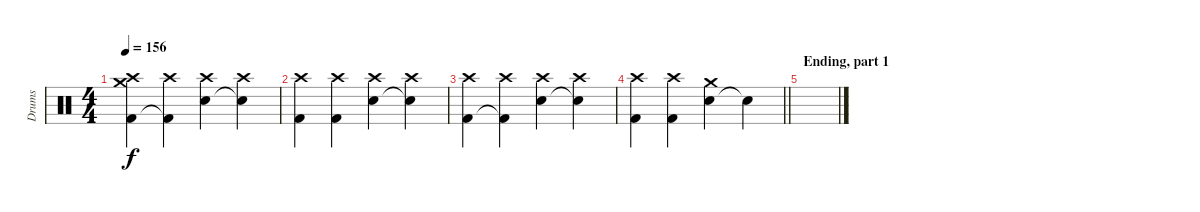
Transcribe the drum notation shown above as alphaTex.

\track ("Drums" "Drums") {instrument percussion}
\staff {score}
\articulation defaults
\ts (4 4)
\tempo 156
\clef neutral
\ks c
("Kick (hit) 2" "Crash high (hit)" "Crash medium (hit)").4{dy f} ("Kick (hit) 2"{t} "Crash high (hit)").4 ("Electric Snare (hit)" "Crash high (hit)").4 ("Snare (hit)"{t} "Crash high (hit)").4 |
("Kick (hit) 2" "Crash high (hit)").4 ("Kick (hit) 2" "Crash high (hit)").4 ("Electric Snare (hit)" "Crash high (hit)").4 ("Snare (hit)"{t} "Crash high (hit)").4 |
("Kick (hit) 2" "Crash high (hit)").4 ("Kick (hit) 2"{t} "Crash high (hit)").4 ("Electric Snare (hit)" "Crash high (hit)").4 ("Snare (hit)"{t} "Crash high (hit)").4 |
\barLineRight lightlight
("Kick (hit) 2" "Crash high (hit)").4 ("Kick (hit) 2" "Crash high (hit)").4 ("Electric Snare (hit)" "Crash medium (hit)").4 "Snare (hit)"{t}.4 |
\section ("" "Ending, part 1")
